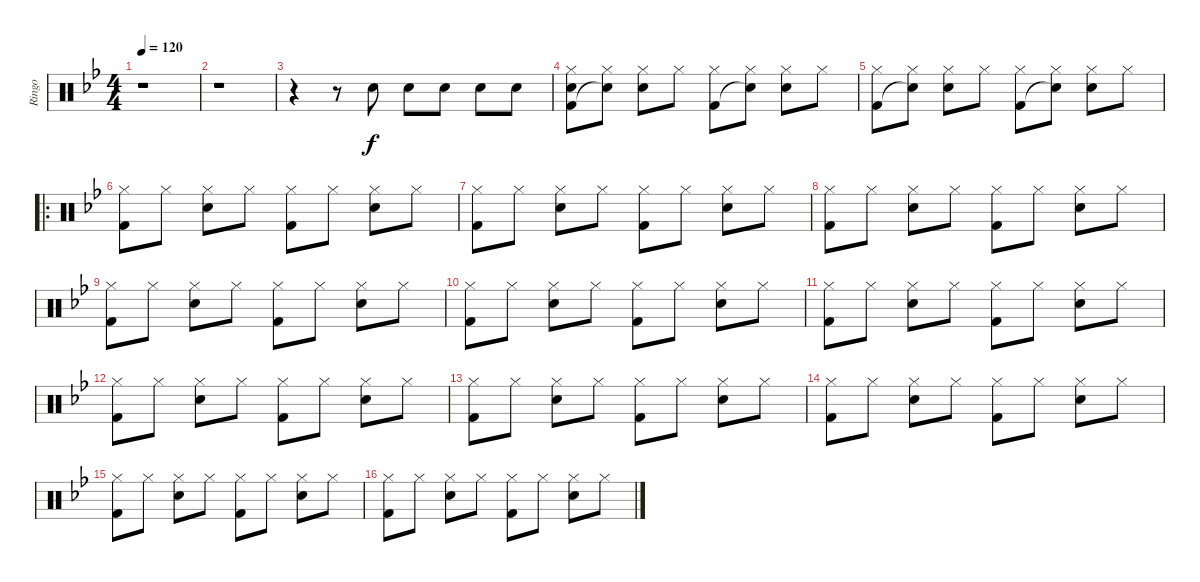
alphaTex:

\track ("Ringo" "Ringo") {instrument percussion}
\staff {score}
\articulation defaults
\ts (4 4)
\tempo 120
\clef neutral
\ks bb
r.1{dy f} |
r.1 |
r.4 r.8 "Hand Clap (hit)".8 "Hand Clap (hit)".8 "Hand Clap (hit)".8 "Hand Clap (hit)".8 "Hand Clap (hit)".8 |
("Hi-Hat (closed)" "Kick (hit) 2" "Hand Clap (hit)").8 ("Hi-Hat (closed)" "Snare (hit)"{t}).8 ("Hi-Hat (closed)" "Snare (hit) 2").8 "Hi-Hat (closed)".8 ("Hi-Hat (closed)" "Kick (hit) 2").8 ("Hi-Hat (closed)" "Snare (hit)"{t}).8 ("Hi-Hat (closed)" "Snare (hit) 2").8 "Hi-Hat (closed)".8 |
("Hi-Hat (closed)" "Kick (hit) 2").8 ("Hi-Hat (closed)" "Snare (hit)"{t}).8 ("Hi-Hat (closed)" "Snare (hit) 2").8 "Hi-Hat (closed)".8 ("Hi-Hat (closed)" "Kick (hit) 2").8 ("Hi-Hat (closed)" "Snare (hit)"{t}).8 ("Hi-Hat (closed)" "Snare (hit) 2").8 "Hi-Hat (closed)".8 |
\ro
("Hi-Hat (closed)" "Kick (hit) 2").8 "Hi-Hat (closed)".8 ("Hi-Hat (closed)" "Snare (hit) 2").8 "Hi-Hat (closed)".8 ("Hi-Hat (closed)" "Kick (hit) 2").8 "Hi-Hat (closed)".8 ("Hi-Hat (closed)" "Snare (hit) 2").8 "Hi-Hat (closed)".8 |
("Hi-Hat (closed)" "Kick (hit) 2").8 "Hi-Hat (closed)".8 ("Hi-Hat (closed)" "Snare (hit) 2").8 "Hi-Hat (closed)".8 ("Hi-Hat (closed)" "Kick (hit) 2").8 "Hi-Hat (closed)".8 ("Hi-Hat (closed)" "Snare (hit) 2").8 "Hi-Hat (closed)".8 |
("Hi-Hat (closed)" "Kick (hit) 2").8 "Hi-Hat (closed)".8 ("Hi-Hat (closed)" "Snare (hit) 2").8 "Hi-Hat (closed)".8 ("Hi-Hat (closed)" "Kick (hit) 2").8 "Hi-Hat (closed)".8 ("Hi-Hat (closed)" "Snare (hit) 2").8 "Hi-Hat (closed)".8 |
("Hi-Hat (closed)" "Kick (hit) 2").8 "Hi-Hat (closed)".8 ("Hi-Hat (closed)" "Snare (hit) 2").8 "Hi-Hat (closed)".8 ("Hi-Hat (closed)" "Kick (hit) 2").8 "Hi-Hat (closed)".8 ("Hi-Hat (closed)" "Snare (hit) 2").8 "Hi-Hat (closed)".8 |
("Hi-Hat (closed)" "Kick (hit) 2").8 "Hi-Hat (closed)".8 ("Hi-Hat (closed)" "Snare (hit) 2").8 "Hi-Hat (closed)".8 ("Hi-Hat (closed)" "Kick (hit) 2").8 "Hi-Hat (closed)".8 ("Hi-Hat (closed)" "Snare (hit) 2").8 "Hi-Hat (closed)".8 |
("Hi-Hat (closed)" "Kick (hit) 2").8 "Hi-Hat (closed)".8 ("Hi-Hat (closed)" "Snare (hit) 2").8 "Hi-Hat (closed)".8 ("Hi-Hat (closed)" "Kick (hit) 2").8 "Hi-Hat (closed)".8 ("Hi-Hat (closed)" "Snare (hit) 2").8 "Hi-Hat (closed)".8 |
("Hi-Hat (closed)" "Kick (hit) 2").8 "Hi-Hat (closed)".8 ("Hi-Hat (closed)" "Snare (hit) 2").8 "Hi-Hat (closed)".8 ("Hi-Hat (closed)" "Kick (hit) 2").8 "Hi-Hat (closed)".8 ("Hi-Hat (closed)" "Snare (hit) 2").8 "Hi-Hat (closed)".8 |
("Hi-Hat (closed)" "Kick (hit) 2").8 "Hi-Hat (closed)".8 ("Hi-Hat (closed)" "Snare (hit) 2").8 "Hi-Hat (closed)".8 ("Hi-Hat (closed)" "Kick (hit) 2").8 "Hi-Hat (closed)".8 ("Hi-Hat (closed)" "Snare (hit) 2").8 "Hi-Hat (closed)".8 |
("Hi-Hat (closed)" "Kick (hit) 2").8 "Hi-Hat (closed)".8 ("Hi-Hat (closed)" "Snare (hit) 2").8 "Hi-Hat (closed)".8 ("Hi-Hat (closed)" "Kick (hit) 2").8 "Hi-Hat (closed)".8 ("Hi-Hat (closed)" "Snare (hit) 2").8 "Hi-Hat (closed)".8 |
("Hi-Hat (closed)" "Kick (hit) 2").8 "Hi-Hat (closed)".8 ("Hi-Hat (closed)" "Snare (hit) 2").8 "Hi-Hat (closed)".8 ("Hi-Hat (closed)" "Kick (hit) 2").8 "Hi-Hat (closed)".8 ("Hi-Hat (closed)" "Snare (hit) 2").8 "Hi-Hat (closed)".8 |
("Hi-Hat (closed)" "Kick (hit) 2").8 "Hi-Hat (closed)".8 ("Hi-Hat (closed)" "Snare (hit) 2").8 "Hi-Hat (closed)".8 ("Hi-Hat (closed)" "Kick (hit) 2").8 "Hi-Hat (closed)".8 ("Hi-Hat (closed)" "Snare (hit) 2").8 "Hi-Hat (closed)".8
